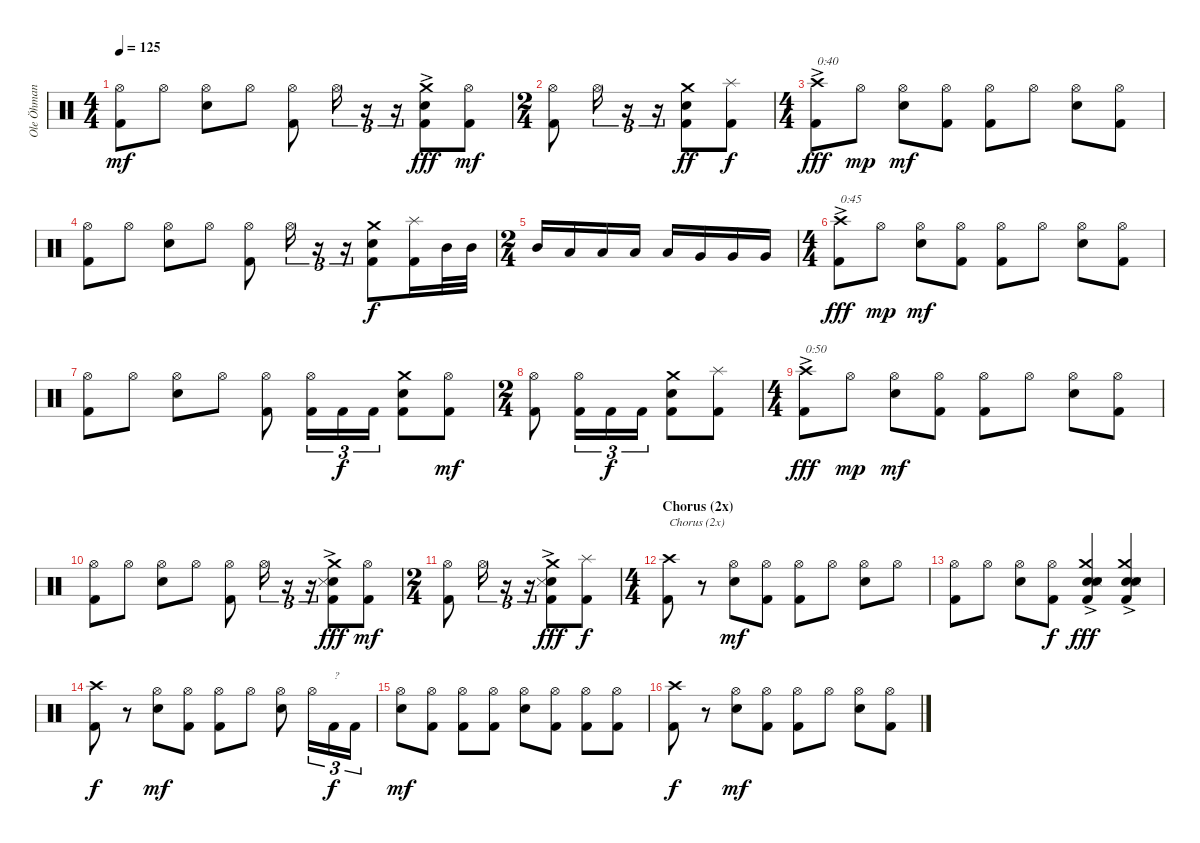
\track ("Ole Öhman" "Ole Öhman") {instrument percussion}
\staff {score}
\articulation defaults
\ts (4 4)
\tempo 125
\clef neutral
\ks c
("Kick (hit) 2" "Hi-Hat (open)").8{dy mf} "Hi-Hat (open)".8 ("Electric Snare (hit)" "Hi-Hat (open)").8 "Hi-Hat (open)".8 ("Kick (hit) 2" "Hi-Hat (open)").8 "Hi-Hat (open)".16{tu (3 2)} r.16{tu (3 2)} r.16{tu (3 2)} ("Kick (hit) 2" "Electric Snare (hit)" "Crash medium (hit)"{ac}).8{dy fff} ("Kick (hit) 2" "Hi-Hat (open)").8{dy mf} |
\ts (2 4)
("Kick (hit) 2" "Hi-Hat (open)").8 "Hi-Hat (open)".16{tu (3 2)} r.16{tu (3 2)} r.16{tu (3 2)} ("Kick (hit) 2" "Electric Snare (hit)" "Crash medium (hit)").8{dy ff} ("Kick (hit) 2" "Splash (hit)").8{dy f} |
\ts (4 4)
("Kick (hit) 2" "Crash high (hit)"{ac}).8{txt "0:40" dy fff} "Hi-Hat (open)".8{dy mp} ("Electric Snare (hit)" "Hi-Hat (open)").8{dy mf} ("Kick (hit) 2" "Hi-Hat (open)").8 ("Kick (hit) 2" "Hi-Hat (open)").8 "Hi-Hat (open)".8 ("Electric Snare (hit)" "Hi-Hat (open)").8 ("Kick (hit) 2" "Hi-Hat (open)").8 |
("Kick (hit) 2" "Hi-Hat (open)").8 "Hi-Hat (open)".8 ("Electric Snare (hit)" "Hi-Hat (open)").8 "Hi-Hat (open)".8 ("Kick (hit) 2" "Hi-Hat (open)").8 "Hi-Hat (open)".16{tu (3 2)} r.16{tu (3 2)} r.16{tu (3 2)} ("Kick (hit) 2" "Electric Snare (hit)" "Crash medium (hit)").8{dy f} ("Kick (hit) 2" "Splash (hit)").16 "Mid Tom (hit)".32 "Mid Tom (hit)".32 |
\ts (2 4)
"Mid Tom (hit)".16 "Low Tom (hit)".16 "Low Tom (hit)".16 "Low Tom (hit)".16 "Low Tom (hit)".16 "Very Low Tom (hit)".16 "Very Low Tom (hit)".16 "Very Low Tom (hit)".16 |
\ts (4 4)
("Kick (hit) 2" "Crash high (hit)"{ac}).8{txt "0:45" dy fff} "Hi-Hat (open)".8{dy mp} ("Electric Snare (hit)" "Hi-Hat (open)").8{dy mf} ("Kick (hit) 2" "Hi-Hat (open)").8 ("Kick (hit) 2" "Hi-Hat (open)").8 "Hi-Hat (open)".8 ("Electric Snare (hit)" "Hi-Hat (open)").8 ("Kick (hit) 2" "Hi-Hat (open)").8 |
("Kick (hit) 2" "Hi-Hat (open)").8 "Hi-Hat (open)".8 ("Electric Snare (hit)" "Hi-Hat (open)").8 "Hi-Hat (open)".8 ("Kick (hit) 2" "Hi-Hat (open)").8 ("Kick (hit) 2" "Hi-Hat (open)").16{tu (3 2)} "Kick (hit) 2".16{tu (3 2) dy f} "Kick (hit) 2".16{tu (3 2)} ("Kick (hit) 2" "Electric Snare (hit)" "Crash medium (hit)").8 ("Kick (hit) 2" "Hi-Hat (open)").8{dy mf} |
\ts (2 4)
("Kick (hit) 2" "Hi-Hat (open)").8 ("Kick (hit) 2" "Hi-Hat (open)").16{tu (3 2)} "Kick (hit) 2".16{tu (3 2) dy f} "Kick (hit) 2".16{tu (3 2)} ("Kick (hit) 2" "Electric Snare (hit)" "Crash medium (hit)").8 ("Kick (hit) 2" "Splash (hit)").8 |
\ts (4 4)
("Kick (hit) 2" "Crash high (hit)"{ac}).8{txt "0:50" dy fff} "Hi-Hat (open)".8{dy mp} ("Electric Snare (hit)" "Hi-Hat (open)").8{dy mf} ("Kick (hit) 2" "Hi-Hat (open)").8 ("Kick (hit) 2" "Hi-Hat (open)").8 "Hi-Hat (open)".8 ("Electric Snare (hit)" "Hi-Hat (open)").8 ("Kick (hit) 2" "Hi-Hat (open)").8 |
("Kick (hit) 2" "Hi-Hat (open)").8 "Hi-Hat (open)".8 ("Electric Snare (hit)" "Hi-Hat (open)").8 "Hi-Hat (open)".8 ("Kick (hit) 2" "Hi-Hat (open)").8 "Hi-Hat (open)".16{tu (3 2)} r.16{tu (3 2)} r.16{tu (3 2)} ("Kick (hit) 2" "Electric Snare (hit)"{ac} "Snare (side stick) 3" "Crash medium (hit)").8{dy fff} ("Kick (hit) 2" "Hi-Hat (open)").8{dy mf} |
\ts (2 4)
("Kick (hit) 2" "Hi-Hat (open)").8 "Hi-Hat (open)".16{tu (3 2)} r.16{tu (3 2)} r.16{tu (3 2)} ("Kick (hit) 2" "Electric Snare (hit)"{ac} "Snare (side stick) 3" "Crash medium (hit)").8{dy fff} ("Kick (hit) 2" "Splash (hit)").8{dy f} |
\ts (4 4)
\section ("" "Chorus (2x)")
("Kick (hit) 2" "Crash high (hit)").8{txt "Chorus (2x)"} r.8 ("Electric Snare (hit)" "Hi-Hat (open)").8{dy mf} ("Kick (hit) 2" "Hi-Hat (open)").8 ("Kick (hit) 2" "Hi-Hat (open)").8 "Hi-Hat (open)".8 ("Electric Snare (hit)" "Hi-Hat (open)").8 "Hi-Hat (open)".8 |
("Kick (hit) 2" "Hi-Hat (open)").8 "Hi-Hat (open)".8 ("Electric Snare (hit)" "Hi-Hat (open)").8 ("Kick (hit) 2" "Hi-Hat (open)").8{dy f} ("Kick (hit) 2" "Electric Snare (hit)"{ac} "Electric Snare (hit)"{ac} "Snare (side stick) 3" "Crash medium (hit)"{ac}).4{dy fff} ("Kick (hit) 2" "Electric Snare (hit)"{ac} "Electric Snare (hit)"{ac} "Snare (side stick) 3" "Crash medium (hit)"{ac}).4 |
("Kick (hit) 2" "Crash high (hit)").8{dy f} r.8 ("Electric Snare (hit)" "Hi-Hat (open)").8{dy mf} ("Kick (hit) 2" "Hi-Hat (open)").8 ("Kick (hit) 2" "Hi-Hat (open)").8 "Hi-Hat (open)".8 ("Electric Snare (hit)" "Hi-Hat (open)").8 "Hi-Hat (open)".16{tu (3 2)} "Kick (hit) 2".16{tu (3 2) txt "?" dy f} "Kick (hit) 2".16{tu (3 2)} |
("Electric Snare (hit)" "Hi-Hat (open)").8{dy mf} ("Kick (hit) 2" "Hi-Hat (open)").8 ("Kick (hit) 2" "Hi-Hat (open)").8 ("Kick (hit) 2" "Hi-Hat (open)").8 ("Electric Snare (hit)" "Hi-Hat (open)").8 ("Kick (hit) 2" "Hi-Hat (open)").8 ("Kick (hit) 2" "Hi-Hat (open)").8 ("Kick (hit) 2" "Hi-Hat (open)").8 |
("Kick (hit) 2" "Crash high (hit)").8{dy f} r.8 ("Electric Snare (hit)" "Hi-Hat (open)").8{dy mf} ("Kick (hit) 2" "Hi-Hat (open)").8 ("Kick (hit) 2" "Hi-Hat (open)").8 "Hi-Hat (open)".8 ("Electric Snare (hit)" "Hi-Hat (open)").8 ("Kick (hit) 2" "Hi-Hat (open)").8
